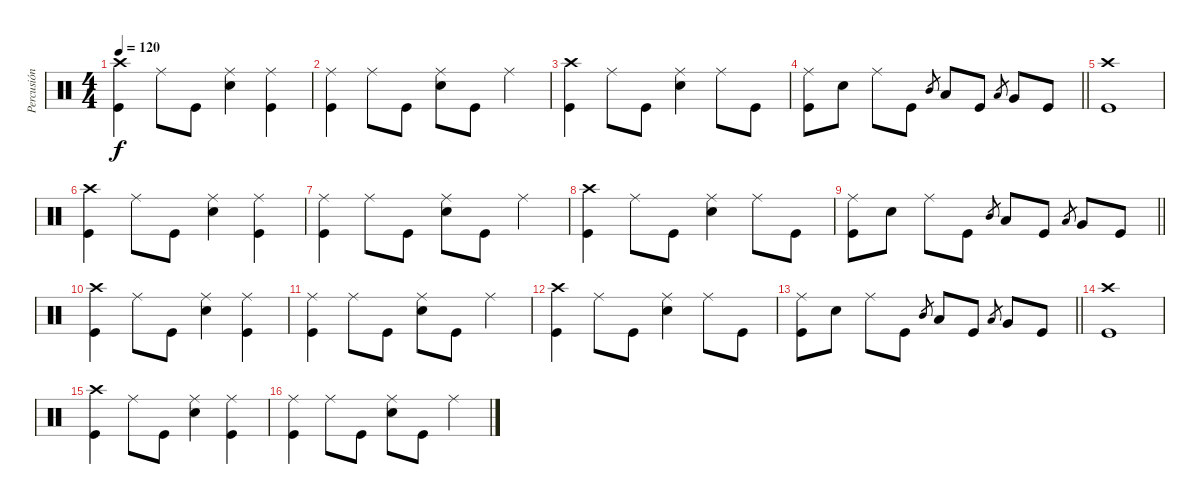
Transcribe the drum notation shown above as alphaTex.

\track ("Percusión" "Percusión") {instrument percussion}
\staff {score}
\articulation defaults
\ts (4 4)
\tempo 120
\clef neutral
\ks c
("Crash high (hit)" "Kick (hit)").4{dy f} "Ride (middle)".8 "Kick (hit)".8 ("Ride (middle)" "Electric Snare (hit)").4 ("Ride (middle)" "Kick (hit)").4 |
("Ride (middle)" "Kick (hit)").4 "Ride (middle)".8 "Kick (hit)".8 ("Ride (middle)" "Electric Snare (hit)").8 "Kick (hit)".8 "Ride (middle)".4 |
("Crash high (hit)" "Kick (hit)").4 "Ride (middle)".8 "Kick (hit)".8 ("Ride (middle)" "Electric Snare (hit)").4 "Ride (middle)".8 "Kick (hit)".8 |
\barLineRight lightlight
("Ride (middle)" "Kick (hit)").8 "Electric Snare (hit)".8 "Ride (middle)".8 "Kick (hit)".8 "Mid Tom (hit)".8{gr} "Low Tom (hit)".8 "Kick (hit)".8 "Low Tom (hit)".8{gr} "Very Low Tom (hit)".8 "Kick (hit)".8 |
("Crash high (hit)" "Kick (hit)").1 |
("Crash high (hit)" "Kick (hit)").4 "Ride (middle)".8 "Kick (hit)".8 ("Ride (middle)" "Electric Snare (hit)").4 ("Ride (middle)" "Kick (hit)").4 |
("Ride (middle)" "Kick (hit)").4 "Ride (middle)".8 "Kick (hit)".8 ("Ride (middle)" "Electric Snare (hit)").8 "Kick (hit)".8 "Ride (middle)".4 |
("Crash high (hit)" "Kick (hit)").4 "Ride (middle)".8 "Kick (hit)".8 ("Ride (middle)" "Electric Snare (hit)").4 "Ride (middle)".8 "Kick (hit)".8 |
\barLineRight lightlight
("Ride (middle)" "Kick (hit)").8 "Electric Snare (hit)".8 "Ride (middle)".8 "Kick (hit)".8 "Mid Tom (hit)".8{gr} "Low Tom (hit)".8 "Kick (hit)".8 "Low Tom (hit)".8{gr} "Very Low Tom (hit)".8 "Kick (hit)".8 |
("Crash high (hit)" "Kick (hit)").4 "Ride (middle)".8 "Kick (hit)".8 ("Ride (middle)" "Electric Snare (hit)").4 ("Ride (middle)" "Kick (hit)").4 |
("Ride (middle)" "Kick (hit)").4 "Ride (middle)".8 "Kick (hit)".8 ("Ride (middle)" "Electric Snare (hit)").8 "Kick (hit)".8 "Ride (middle)".4 |
("Crash high (hit)" "Kick (hit)").4 "Ride (middle)".8 "Kick (hit)".8 ("Ride (middle)" "Electric Snare (hit)").4 "Ride (middle)".8 "Kick (hit)".8 |
\barLineRight lightlight
("Ride (middle)" "Kick (hit)").8 "Electric Snare (hit)".8 "Ride (middle)".8 "Kick (hit)".8 "Mid Tom (hit)".8{gr} "Low Tom (hit)".8 "Kick (hit)".8 "Low Tom (hit)".8{gr} "Very Low Tom (hit)".8 "Kick (hit)".8 |
("Crash high (hit)" "Kick (hit)").1 |
("Crash high (hit)" "Kick (hit)").4 "Ride (middle)".8 "Kick (hit)".8 ("Ride (middle)" "Electric Snare (hit)").4 ("Ride (middle)" "Kick (hit)").4 |
("Ride (middle)" "Kick (hit)").4 "Ride (middle)".8 "Kick (hit)".8 ("Ride (middle)" "Electric Snare (hit)").8 "Kick (hit)".8 "Ride (middle)".4
